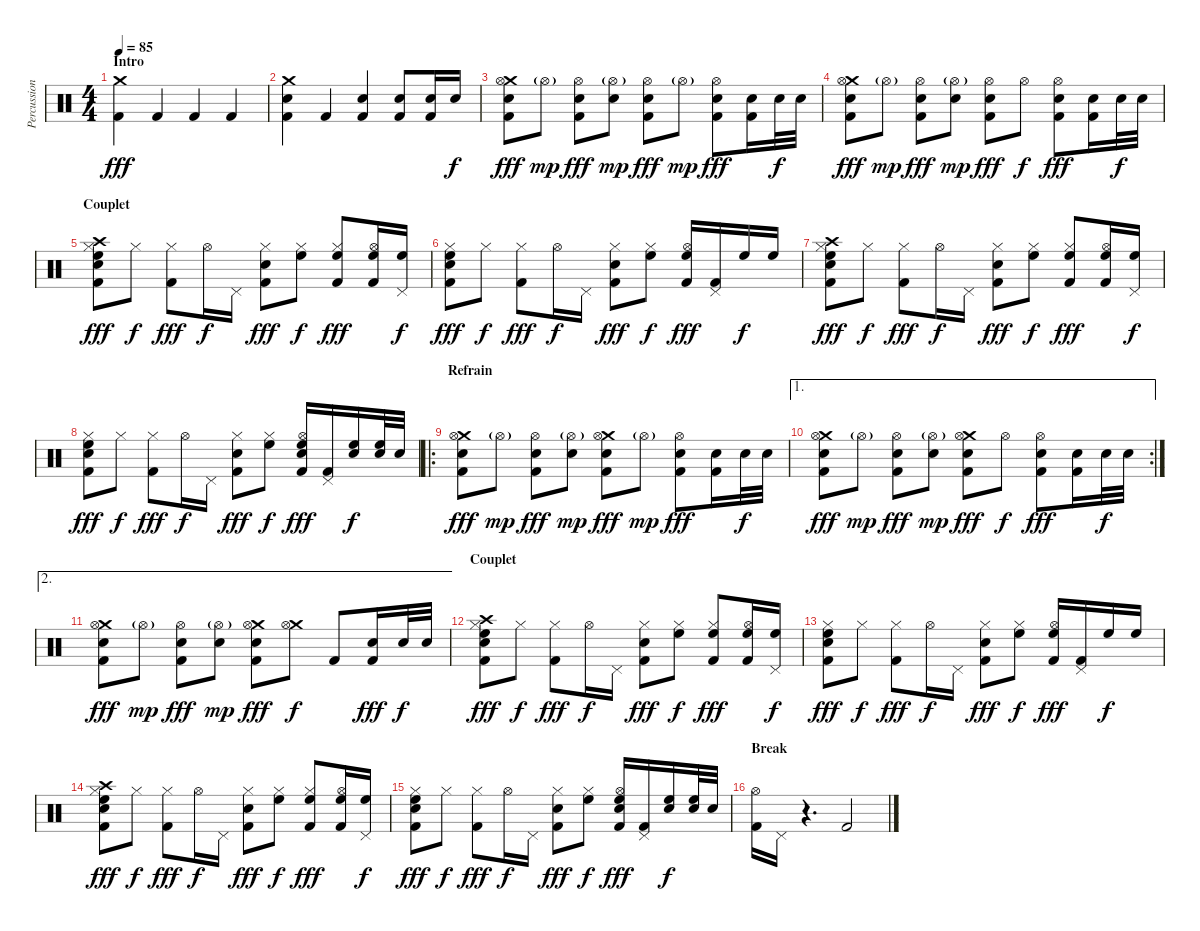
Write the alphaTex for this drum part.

\track ("Percussions" "Percussion") {instrument percussion}
\staff {score}
\articulation defaults
\ts (4 4)
\section ("" "Intro")
\tempo 85
\clef neutral
\ks c
("Crash medium (hit)" "Kick (hit) 2").4{dy fff} "Kick (hit) 2".4 "Kick (hit) 2".4 "Kick (hit) 2".4 |
("Crash medium (hit)" "Kick (hit) 2" "Electric Snare (hit)").4 "Kick (hit) 2".4 ("Kick (hit) 2" "Electric Snare (hit)").4 ("Kick (hit) 2" "Electric Snare (hit)").8 ("Kick (hit) 2" "Electric Snare (hit)").16 "Electric Snare (hit)".16{dy f} |
("Crash medium (hit)" "Kick (hit) 2" "Electric Snare (hit)" "Hi-Hat (open)").8{dy fff} "Hi-Hat (open)"{g}.8{dy mp} ("Kick (hit) 2" "Electric Snare (hit)" "Hi-Hat (open)").8{dy fff} ("Electric Snare (hit)" "Hi-Hat (open)"{g}).8{dy mp} ("Kick (hit) 2" "Electric Snare (hit)" "Hi-Hat (open)").8{dy fff} "Hi-Hat (open)"{g}.8{dy mp} ("Kick (hit) 2" "Electric Snare (hit)" "Hi-Hat (open)").8{dy fff} ("Kick (hit) 2" "Electric Snare (hit)").16 "Electric Snare (hit)".32{dy f} "Electric Snare (hit)".32 |
("Crash medium (hit)" "Kick (hit) 2" "Electric Snare (hit)" "Hi-Hat (open)").8{dy fff} "Hi-Hat (open)"{g}.8{dy mp} ("Kick (hit) 2" "Electric Snare (hit)" "Hi-Hat (open)").8{dy fff} ("Electric Snare (hit)" "Hi-Hat (open)"{g}).8{dy mp} ("Kick (hit) 2" "Electric Snare (hit)" "Hi-Hat (open)").8{dy fff} "Hi-Hat (open)".8{dy f} ("Kick (hit) 2" "Electric Snare (hit)" "Hi-Hat (open)").8{dy fff} ("Kick (hit) 2" "Electric Snare (hit)").16 "Electric Snare (hit)".32{dy f} "Electric Snare (hit)".32 |
\section ("" "Couplet")
("Hi-Hat (closed)" "Kick (hit) 2" "Electric Snare (hit)" "Crash high (hit)" "High Floor Tom (hit)").8{dy fff} "Hi-Hat (closed)".8{dy f} ("Hi-Hat (closed)" "Kick (hit) 2").8{dy fff} "Hi-Hat (open)".16{dy f} "Pedal Hi-Hat (hit)".16 ("Hi-Hat (closed)" "Kick (hit) 2" "Electric Snare (hit)").8{dy fff} ("Hi-Hat (closed)" "High Floor Tom (hit)").8{dy f} ("Hi-Hat (closed)" "Kick (hit) 2" "High Floor Tom (hit)").8{dy fff} ("Hi-Hat (open)" "Kick (hit) 2" "High Floor Tom (hit)").16 ("Pedal Hi-Hat (hit)" "High Floor Tom (hit)").16{dy f} |
("Hi-Hat (closed)" "Kick (hit) 2" "Electric Snare (hit)" "High Floor Tom (hit)").8{dy fff} "Hi-Hat (closed)".8{dy f} ("Hi-Hat (closed)" "Kick (hit) 2").8{dy fff} "Hi-Hat (open)".16{dy f} "Pedal Hi-Hat (hit)".16 ("Hi-Hat (closed)" "Kick (hit) 2" "Electric Snare (hit)").8{dy fff} ("Hi-Hat (closed)" "High Floor Tom (hit)").8{dy f} ("Hi-Hat (open)" "Kick (hit) 2" "High Floor Tom (hit)").16{dy fff} ("Pedal Hi-Hat (hit)" "Kick (hit) 2").16 "High Floor Tom (hit)".16{dy f} "High Floor Tom (hit)".16 |
("Hi-Hat (closed)" "Kick (hit) 2" "Electric Snare (hit)" "Crash high (hit)" "High Floor Tom (hit)").8{dy fff} "Hi-Hat (closed)".8{dy f} ("Hi-Hat (closed)" "Kick (hit) 2").8{dy fff} "Hi-Hat (open)".16{dy f} "Pedal Hi-Hat (hit)".16 ("Hi-Hat (closed)" "Kick (hit) 2" "Electric Snare (hit)").8{dy fff} ("Hi-Hat (closed)" "High Floor Tom (hit)").8{dy f} ("Hi-Hat (closed)" "Kick (hit) 2" "High Floor Tom (hit)").8{dy fff} ("Hi-Hat (open)" "Kick (hit) 2" "High Floor Tom (hit)").16 ("Pedal Hi-Hat (hit)" "High Floor Tom (hit)").16{dy f} |
("Hi-Hat (closed)" "Kick (hit) 2" "Electric Snare (hit)" "High Floor Tom (hit)").8{dy fff} "Hi-Hat (closed)".8{dy f} ("Hi-Hat (closed)" "Kick (hit) 2").8{dy fff} "Hi-Hat (open)".16{dy f} "Pedal Hi-Hat (hit)".16 ("Hi-Hat (closed)" "Kick (hit) 2" "Electric Snare (hit)").8{dy fff} ("Hi-Hat (closed)" "High Floor Tom (hit)").8{dy f} ("Hi-Hat (open)" "Kick (hit) 2" "Electric Snare (hit)" "High Floor Tom (hit)").16{dy fff} ("Pedal Hi-Hat (hit)" "Kick (hit) 2").16 ("Electric Snare (hit)" "High Floor Tom (hit)").16{dy f} ("Electric Snare (hit)" "High Floor Tom (hit)").32 "Electric Snare (hit)".32 |
\ro
\section ("" "Refrain")
("Crash medium (hit)" "Kick (hit) 2" "Electric Snare (hit)" "Hi-Hat (open)").8{dy fff} "Hi-Hat (open)"{g}.8{dy mp} ("Kick (hit) 2" "Electric Snare (hit)" "Hi-Hat (open)").8{dy fff} ("Electric Snare (hit)" "Hi-Hat (open)"{g}).8{dy mp} ("Crash medium (hit)" "Kick (hit) 2" "Electric Snare (hit)" "Hi-Hat (open)").8{dy fff} "Hi-Hat (open)"{g}.8{dy mp} ("Kick (hit) 2" "Electric Snare (hit)" "Hi-Hat (open)").8{dy fff} ("Kick (hit) 2" "Electric Snare (hit)").16 "Electric Snare (hit)".32{dy f} "Electric Snare (hit)".32 |
\ae 1
\rc 2
("Crash medium (hit)" "Kick (hit) 2" "Electric Snare (hit)" "Hi-Hat (open)").8{dy fff} "Hi-Hat (open)"{g}.8{dy mp} ("Kick (hit) 2" "Electric Snare (hit)" "Hi-Hat (open)").8{dy fff} ("Electric Snare (hit)" "Hi-Hat (open)"{g}).8{dy mp} ("Crash medium (hit)" "Kick (hit) 2" "Electric Snare (hit)" "Hi-Hat (open)").8{dy fff} "Hi-Hat (open)".8{dy f} ("Kick (hit) 2" "Electric Snare (hit)" "Hi-Hat (open)").8{dy fff} ("Kick (hit) 2" "Electric Snare (hit)").16 "Electric Snare (hit)".32{dy f} "Electric Snare (hit)".32 |
\ae 2
("Crash medium (hit)" "Kick (hit) 2" "Electric Snare (hit)" "Hi-Hat (open)").8{dy fff} "Hi-Hat (open)"{g}.8{dy mp} ("Kick (hit) 2" "Electric Snare (hit)" "Hi-Hat (open)").8{dy fff} ("Electric Snare (hit)" "Hi-Hat (open)"{g}).8{dy mp} ("Crash medium (hit)" "Kick (hit) 2" "Electric Snare (hit)" "Hi-Hat (open)").8{dy fff} ("Crash medium (hit)" "Hi-Hat (open)").8{dy f} "Kick (hit) 2".8 ("Kick (hit) 2" "Electric Snare (hit)").16{dy fff} "Electric Snare (hit)".32{dy f} "Electric Snare (hit)".32 |
\section ("" "Couplet")
("Hi-Hat (closed)" "Kick (hit) 2" "Electric Snare (hit)" "Crash high (hit)" "High Floor Tom (hit)").8{dy fff} "Hi-Hat (closed)".8{dy f} ("Hi-Hat (closed)" "Kick (hit) 2").8{dy fff} "Hi-Hat (open)".16{dy f} "Pedal Hi-Hat (hit)".16 ("Hi-Hat (closed)" "Kick (hit) 2" "Electric Snare (hit)").8{dy fff} ("Hi-Hat (closed)" "High Floor Tom (hit)").8{dy f} ("Hi-Hat (closed)" "Kick (hit) 2" "High Floor Tom (hit)").8{dy fff} ("Hi-Hat (open)" "Kick (hit) 2" "High Floor Tom (hit)").16 ("Pedal Hi-Hat (hit)" "High Floor Tom (hit)").16{dy f} |
("Hi-Hat (closed)" "Kick (hit) 2" "Electric Snare (hit)" "High Floor Tom (hit)").8{dy fff} "Hi-Hat (closed)".8{dy f} ("Hi-Hat (closed)" "Kick (hit) 2").8{dy fff} "Hi-Hat (open)".16{dy f} "Pedal Hi-Hat (hit)".16 ("Hi-Hat (closed)" "Kick (hit) 2" "Electric Snare (hit)").8{dy fff} ("Hi-Hat (closed)" "High Floor Tom (hit)").8{dy f} ("Hi-Hat (open)" "Kick (hit) 2" "High Floor Tom (hit)").16{dy fff} ("Pedal Hi-Hat (hit)" "Kick (hit) 2").16 "High Floor Tom (hit)".16{dy f} "High Floor Tom (hit)".16 |
("Hi-Hat (closed)" "Kick (hit) 2" "Electric Snare (hit)" "Crash high (hit)" "High Floor Tom (hit)").8{dy fff} "Hi-Hat (closed)".8{dy f} ("Hi-Hat (closed)" "Kick (hit) 2").8{dy fff} "Hi-Hat (open)".16{dy f} "Pedal Hi-Hat (hit)".16 ("Hi-Hat (closed)" "Kick (hit) 2" "Electric Snare (hit)").8{dy fff} ("Hi-Hat (closed)" "High Floor Tom (hit)").8{dy f} ("Hi-Hat (closed)" "Kick (hit) 2" "High Floor Tom (hit)").8{dy fff} ("Hi-Hat (open)" "Kick (hit) 2" "High Floor Tom (hit)").16 ("Pedal Hi-Hat (hit)" "High Floor Tom (hit)").16{dy f} |
("Hi-Hat (closed)" "Kick (hit) 2" "Electric Snare (hit)" "High Floor Tom (hit)").8{dy fff} "Hi-Hat (closed)".8{dy f} ("Hi-Hat (closed)" "Kick (hit) 2").8{dy fff} "Hi-Hat (open)".16{dy f} "Pedal Hi-Hat (hit)".16 ("Hi-Hat (closed)" "Kick (hit) 2" "Electric Snare (hit)").8{dy fff} ("Hi-Hat (closed)" "High Floor Tom (hit)").8{dy f} ("Hi-Hat (open)" "Kick (hit) 2" "Electric Snare (hit)" "High Floor Tom (hit)").16{dy fff} ("Pedal Hi-Hat (hit)" "Kick (hit) 2").16 ("Electric Snare (hit)" "High Floor Tom (hit)").16{dy f} ("Electric Snare (hit)" "High Floor Tom (hit)").32 "Electric Snare (hit)".32 |
\section ("" "Break")
("Kick (hit) 2" "Hi-Hat (open)").16 "Pedal Hi-Hat (hit)".16 r.4{d} "Kick (hit) 2".2
